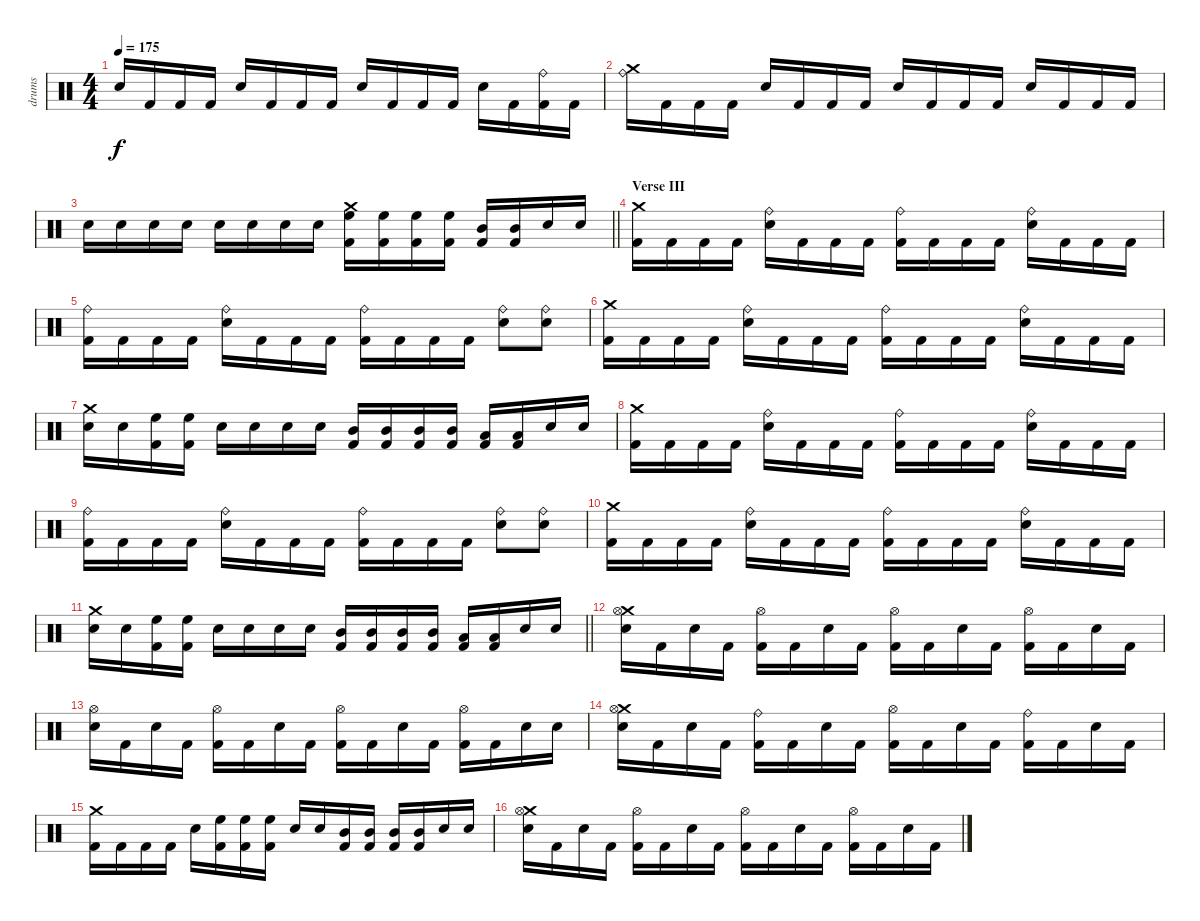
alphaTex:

\track ("drums" "drums") {instrument percussion}
\staff {score}
\articulation defaults
\ts (4 4)
\tempo 175
\clef neutral
\ks c "Snare (hit) 2".16{dy f} "Kick (hit) 2".16 "Kick (hit) 2".16 "Kick (hit) 2".16 "Snare (hit) 2".16 "Kick (hit) 2".16 "Kick (hit) 2".16 "Kick (hit) 2".16 "Snare (hit) 2".16 "Kick (hit) 2".16 "Kick (hit) 2".16 "Kick (hit) 2".16 "Snare (hit) 2".16 "Kick (hit) 2".16
("Ride (bell)" "Kick (hit) 2").16 "Kick (hit) 2".16 |
("Crash medium (hit)" "Ride (bell)").16 "Kick (hit) 2".16 "Kick (hit) 2".16 "Kick (hit) 2".16 "Snare (hit) 2".16 "Kick (hit) 2".16 "Kick (hit) 2".16 "Kick (hit) 2".16 "Snare (hit) 2".16 "Kick (hit) 2".16 "Kick (hit) 2".16 "Kick (hit) 2".16 "Snare (hit) 2".16 "Kick (hit) 2".16 "Kick (hit) 2".16 "Kick (hit) 2".16 |
\barLineRight lightlight "Snare (hit) 2".16 "Snare (hit) 2".16 "Snare (hit) 2".16 "Snare (hit) 2".16 "Snare (hit) 2".16 "Snare (hit) 2".16 "Snare (hit) 2".16 "Snare (hit) 2".16
("Crash medium (hit)" "High Floor Tom (hit)" "Kick (hit) 2").16 ("High Floor Tom (hit)" "Kick (hit) 2").16 ("High Floor Tom (hit)" "Kick (hit) 2").16 ("High Floor Tom (hit)" "Kick (hit) 2").16 ("Mid Tom (hit)" "Kick (hit) 2").16 ("Mid Tom (hit)" "Kick (hit) 2").16 "Snare (hit) 2".16 "Snare (hit) 2".16 |
\section ("" "Verse III")
("Crash medium (hit)" "Kick (hit) 2").16 "Kick (hit) 2".16 "Kick (hit) 2".16 "Kick (hit) 2".16 ("Ride (bell)" "Snare (hit) 2").16 "Kick (hit) 2".16 "Kick (hit) 2".16 "Kick (hit) 2".16 ("Ride (bell)" "Kick (hit) 2").16 "Kick (hit) 2".16 "Kick (hit) 2".16 "Kick (hit) 2".16 ("Ride (bell)" "Snare (hit) 2").16 "Kick (hit) 2".16 "Kick (hit) 2".16 "Kick (hit) 2".16 |
("Ride (bell)" "Kick (hit) 2").16 "Kick (hit) 2".16 "Kick (hit) 2".16 "Kick (hit) 2".16 ("Ride (bell)" "Snare (hit) 2").16 "Kick (hit) 2".16 "Kick (hit) 2".16 "Kick (hit) 2".16 ("Ride (bell)" "Kick (hit) 2").16 "Kick (hit) 2".16 "Kick (hit) 2".16 "Kick (hit) 2".16 ("Ride (bell)" "Snare (hit) 2").8 ("Ride (bell)" "Snare (hit) 2").8 |
("Crash medium (hit)" "Kick (hit) 2").16 "Kick (hit) 2".16 "Kick (hit) 2".16 "Kick (hit) 2".16 ("Ride (bell)" "Snare (hit) 2").16 "Kick (hit) 2".16 "Kick (hit) 2".16 "Kick (hit) 2".16 ("Ride (bell)" "Kick (hit) 2").16 "Kick (hit) 2".16 "Kick (hit) 2".16 "Kick (hit) 2".16 ("Ride (bell)" "Snare (hit) 2").16 "Kick (hit) 2".16 "Kick (hit) 2".16 "Kick (hit) 2".16 |
("Crash medium (hit)" "Snare (hit) 2").16 "Snare (hit) 2".16 ("High Floor Tom (hit)" "Kick (hit) 2").16 ("High Floor Tom (hit)" "Kick (hit) 2").16 "Snare (hit) 2".16 "Snare (hit) 2".16 "Snare (hit) 2".16 "Snare (hit) 2".16 ("Mid Tom (hit)" "Kick (hit) 2").16 ("Mid Tom (hit)" "Kick (hit) 2").16 ("Mid Tom (hit)" "Kick (hit) 2").16 ("Mid Tom (hit)" "Kick (hit) 2").16 ("Low Tom (hit)" "Kick (hit) 2").16 ("Low Tom (hit)" "Kick (hit) 2").16 "Snare (hit) 2".16 "Snare (hit) 2".16 |
("Crash medium (hit)" "Kick (hit) 2").16 "Kick (hit) 2".16 "Kick (hit) 2".16 "Kick (hit) 2".16 ("Ride (bell)" "Snare (hit) 2").16 "Kick (hit) 2".16 "Kick (hit) 2".16 "Kick (hit) 2".16 ("Ride (bell)" "Kick (hit) 2").16 "Kick (hit) 2".16 "Kick (hit) 2".16 "Kick (hit) 2".16 ("Ride (bell)" "Snare (hit) 2").16 "Kick (hit) 2".16 "Kick (hit) 2".16 "Kick (hit) 2".16 |
("Ride (bell)" "Kick (hit) 2").16 "Kick (hit) 2".16 "Kick (hit) 2".16 "Kick (hit) 2".16 ("Ride (bell)" "Snare (hit) 2").16 "Kick (hit) 2".16 "Kick (hit) 2".16 "Kick (hit) 2".16 ("Ride (bell)" "Kick (hit) 2").16 "Kick (hit) 2".16 "Kick (hit) 2".16 "Kick (hit) 2".16 ("Ride (bell)" "Snare (hit) 2").8 ("Ride (bell)" "Snare (hit) 2").8 |
("Crash medium (hit)" "Kick (hit) 2").16 "Kick (hit) 2".16 "Kick (hit) 2".16 "Kick (hit) 2".16 ("Ride (bell)" "Snare (hit) 2").16 "Kick (hit) 2".16 "Kick (hit) 2".16 "Kick (hit) 2".16 ("Ride (bell)" "Kick (hit) 2").16 "Kick (hit) 2".16 "Kick (hit) 2".16 "Kick (hit) 2".16 ("Ride (bell)" "Snare (hit) 2").16 "Kick (hit) 2".16 "Kick (hit) 2".16 "Kick (hit) 2".16 |
\barLineRight lightlight
("Crash medium (hit)" "Snare (hit) 2").16 "Snare (hit) 2".16 ("High Floor Tom (hit)" "Kick (hit) 2").16 ("High Floor Tom (hit)" "Kick (hit) 2").16 "Snare (hit) 2".16 "Snare (hit) 2".16 "Snare (hit) 2".16 "Snare (hit) 2".16 ("Mid Tom (hit)" "Kick (hit) 2").16 ("Mid Tom (hit)" "Kick (hit) 2").16 ("Mid Tom (hit)" "Kick (hit) 2").16 ("Mid Tom (hit)" "Kick (hit) 2").16 ("Low Tom (hit)" "Kick (hit) 2").16 ("Low Tom (hit)" "Kick (hit) 2").16 "Snare (hit) 2".16 "Snare (hit) 2".16 |
("Crash medium (hit)" "Hi-Hat (open)" "Snare (hit) 2").16 "Kick (hit) 2".16 "Snare (hit) 2".16 "Kick (hit) 2".16 ("Hi-Hat (open)" "Kick (hit) 2").16 "Kick (hit) 2".16 "Snare (hit) 2".16 "Kick (hit) 2".16 ("Hi-Hat (open)" "Kick (hit) 2").16 "Kick (hit) 2".16 "Snare (hit) 2".16 "Kick (hit) 2".16 ("Hi-Hat (open)" "Kick (hit) 2").16 "Kick (hit) 2".16 "Snare (hit) 2".16 "Kick (hit) 2".16 |
("Hi-Hat (open)" "Snare (hit) 2").16 "Kick (hit) 2".16 "Snare (hit) 2".16 "Kick (hit) 2".16 ("Hi-Hat (open)" "Kick (hit) 2").16 "Kick (hit) 2".16 "Snare (hit) 2".16 "Kick (hit) 2".16 ("Hi-Hat (open)" "Kick (hit) 2").16 "Kick (hit) 2".16 "Snare (hit) 2".16 "Kick (hit) 2".16 ("Hi-Hat (open)" "Kick (hit) 2").16 "Kick (hit) 2".16 "Snare (hit) 2".16 "Snare (hit) 2".16 |
("Crash medium (hit)" "Hi-Hat (open)" "Snare (hit) 2").16 "Kick (hit) 2".16 "Snare (hit) 2".16 "Kick (hit) 2".16 ("Ride (bell)" "Kick (hit) 2").16 "Kick (hit) 2".16 "Snare (hit) 2".16 "Kick (hit) 2".16 ("Hi-Hat (open)" "Kick (hit) 2").16 "Kick (hit) 2".16 "Snare (hit) 2".16 "Kick (hit) 2".16 ("Ride (bell)" "Kick (hit) 2").16 "Kick (hit) 2".16 "Snare (hit) 2".16 "Kick (hit) 2".16 |
("Crash medium (hit)" "Kick (hit) 2").16 "Kick (hit) 2".16 "Kick (hit) 2".16 "Kick (hit) 2".16 "Snare (hit) 2".16 ("High Floor Tom (hit)" "Kick (hit) 2").16 ("High Floor Tom (hit)" "Kick (hit) 2").16 ("High Floor Tom (hit)" "Kick (hit) 2").16 "Snare (hit) 2".16 "Snare (hit) 2".16 ("Mid Tom (hit)" "Kick (hit) 2").16 ("Mid Tom (hit)" "Kick (hit) 2").16 ("Mid Tom (hit)" "Kick (hit) 2").16 ("Mid Tom (hit)" "Kick (hit) 2").16 "Snare (hit) 2".16 "Snare (hit) 2".16 |
("Crash medium (hit)" "Hi-Hat (open)" "Snare (hit) 2").16 "Kick (hit) 2".16 "Snare (hit) 2".16 "Kick (hit) 2".16 ("Hi-Hat (open)" "Kick (hit) 2").16 "Kick (hit) 2".16 "Snare (hit) 2".16 "Kick (hit) 2".16 ("Hi-Hat (open)" "Kick (hit) 2").16 "Kick (hit) 2".16 "Snare (hit) 2".16 "Kick (hit) 2".16 ("Hi-Hat (open)" "Kick (hit) 2").16 "Kick (hit) 2".16 "Snare (hit) 2".16 "Kick (hit) 2".16
